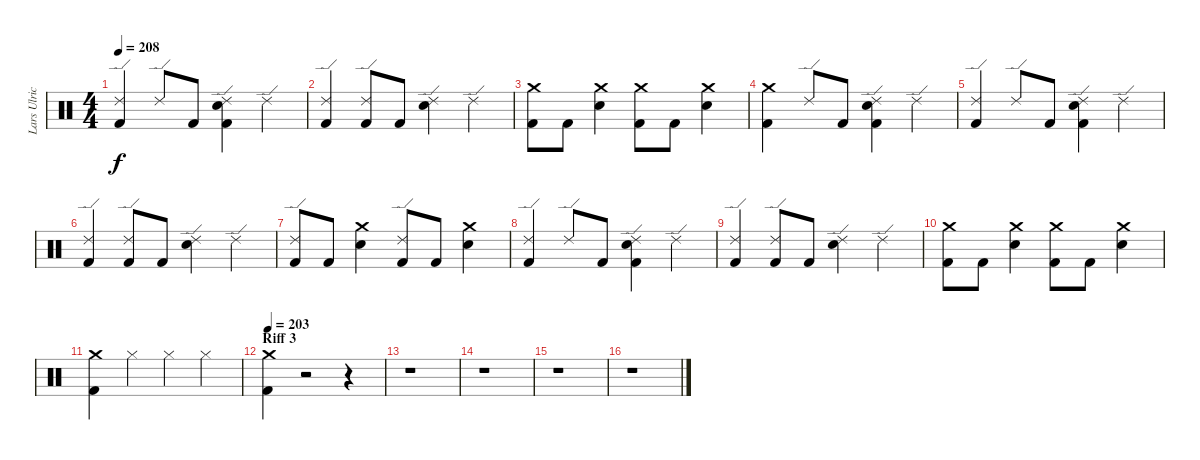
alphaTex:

\track ("Lars Ulrich (Drums)" "Lars Ulric") {instrument percussion}
\staff {score}
\articulation defaults
\ts (4 4)
\tempo 208
\clef neutral
\ks c
("Ride (edge) 2" "Kick (hit) 2").4{dy f} "Ride (edge) 2".8 "Kick (hit) 2".8 ("Ride (edge) 2" "Snare (hit) 2" "Kick (hit) 2").4 "Ride (edge) 2".4 |
("Kick (hit) 2" "Ride (edge) 2").4 ("Ride (edge) 2" "Kick (hit) 2").8 "Kick (hit) 2".8 ("Snare (hit) 2" "Ride (edge) 2").4 "Ride (edge) 2".4 |
("Kick (hit) 2" "Crash medium (hit)").8 "Kick (hit) 2".8 ("Snare (hit) 2" "Crash medium (hit)").4 ("Kick (hit) 2" "Crash medium (hit)").8 "Kick (hit) 2".8 ("Snare (hit) 2" "Crash medium (hit)").4 |
("Kick (hit) 2" "Crash medium (hit)").4 "Ride (edge) 2".8 "Kick (hit) 2".8 ("Kick (hit) 2" "Snare (hit) 2" "Ride (edge) 2").4 "Ride (edge) 2".4 |
("Kick (hit) 2" "Ride (edge) 2").4 "Ride (edge) 2".8 "Kick (hit) 2".8 ("Kick (hit) 2" "Snare (hit) 2" "Ride (edge) 2").4 "Ride (edge) 2".4 |
("Kick (hit) 2" "Ride (edge) 2").4 ("Kick (hit) 2" "Ride (edge) 2").8 "Kick (hit) 2".8 ("Ride (edge) 2" "Snare (hit) 2").4 "Ride (edge) 2".4 |
("Ride (edge) 2" "Kick (hit) 2").8 "Kick (hit) 2".8 ("Snare (hit) 2" "Crash medium (hit)").4 ("Ride (edge) 2" "Kick (hit) 2").8 "Kick (hit) 2".8 ("Snare (hit) 2" "Crash medium (hit)").4 |
("Ride (edge) 2" "Kick (hit) 2").4 "Ride (edge) 2".8 "Kick (hit) 2".8 ("Ride (edge) 2" "Snare (hit) 2" "Kick (hit) 2").4 "Ride (edge) 2".4 |
("Kick (hit) 2" "Ride (edge) 2").4 ("Ride (edge) 2" "Kick (hit) 2").8 "Kick (hit) 2".8 ("Snare (hit) 2" "Ride (edge) 2").4 "Ride (edge) 2".4 |
("Kick (hit) 2" "Crash medium (hit)").8 "Kick (hit) 2".8 ("Snare (hit) 2" "Crash medium (hit)").4 ("Kick (hit) 2" "Crash medium (hit)").8 "Kick (hit) 2".8 ("Snare (hit) 2" "Crash medium (hit)").4 |
("Kick (hit) 2" "Crash medium (hit)").4 "Hi-Hat (closed)".4 "Hi-Hat (closed)".4 "Hi-Hat (closed)".4 |
\section ("" "Riff 3")
\tempo 203
("Kick (hit) 2" "Crash medium (hit)").4 r.2 r.4 |
r.1 |
r.1 |
r.1 |
r.1
